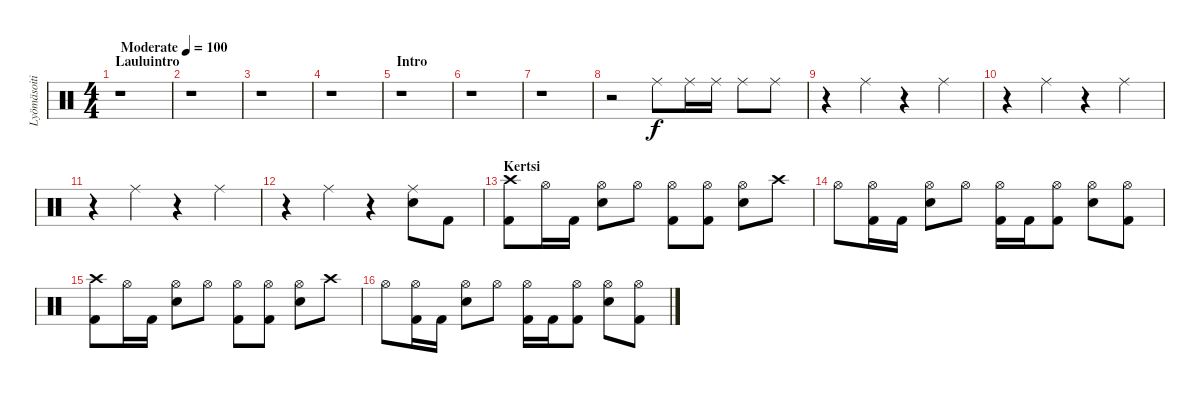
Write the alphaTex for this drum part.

\track ("Lyömäsoitin" "Lyömäsoiti") {instrument percussion}
\staff {score}
\articulation defaults
\ts (4 4)
\section ("" "Lauluintro")
\tempo (100 "Moderate")
\clef neutral
\ks c
r.1{dy f} |
r.1 |
r.1 |
r.1 |
\section ("" "Intro")
r.1 |
r.1 |
r.1 |
r.2 "Ride (middle)".8 "Ride (middle)".16 "Ride (middle)".16 "Ride (middle)".8 "Ride (middle)".8 |
r.4 "Ride (middle)".4 r.4 "Ride (middle)".4 |
r.4 "Ride (middle)".4 r.4 "Ride (middle)".4 |
r.4 "Ride (middle)".4 r.4 "Ride (middle)".4 |
r.4 "Ride (middle)".4 r.4 ("Ride (middle)" "Snare (hit) 2").8 "Kick (hit) 2".8 |
\section ("" "Kertsi")
("Crash high (hit)" "Kick (hit) 2").8 "Hi-Hat (open)".16 "Kick (hit) 2".16 ("Hi-Hat (open)" "Snare (hit) 2").8 "Hi-Hat (open)".8 ("Hi-Hat (open)" "Kick (hit) 2").8 ("Hi-Hat (open)" "Kick (hit) 2").8 ("Hi-Hat (open)" "Snare (hit) 2").8 "Crash high (hit)".8 |
"Hi-Hat (open)".8 ("Hi-Hat (open)" "Kick (hit) 2").16 "Kick (hit) 2".16 ("Hi-Hat (open)" "Snare (hit) 2").8 "Hi-Hat (open)".8 ("Hi-Hat (open)" "Kick (hit) 2").16 "Kick (hit) 2".16 ("Hi-Hat (open)" "Kick (hit) 2").8 ("Hi-Hat (open)" "Snare (hit) 2").8 ("Hi-Hat (open)" "Kick (hit) 2").8 |
("Crash high (hit)" "Kick (hit) 2").8 "Hi-Hat (open)".16 "Kick (hit) 2".16 ("Hi-Hat (open)" "Snare (hit) 2").8 "Hi-Hat (open)".8 ("Hi-Hat (open)" "Kick (hit) 2").8 ("Hi-Hat (open)" "Kick (hit) 2").8 ("Hi-Hat (open)" "Snare (hit) 2").8 "Crash high (hit)".8 |
"Hi-Hat (open)".8 ("Hi-Hat (open)" "Kick (hit) 2").16 "Kick (hit) 2".16 ("Hi-Hat (open)" "Snare (hit) 2").8 "Hi-Hat (open)".8 ("Hi-Hat (open)" "Kick (hit) 2").16 "Kick (hit) 2".16 ("Hi-Hat (open)" "Kick (hit) 2").8 ("Hi-Hat (open)" "Snare (hit) 2").8 ("Hi-Hat (open)" "Kick (hit) 2").8
